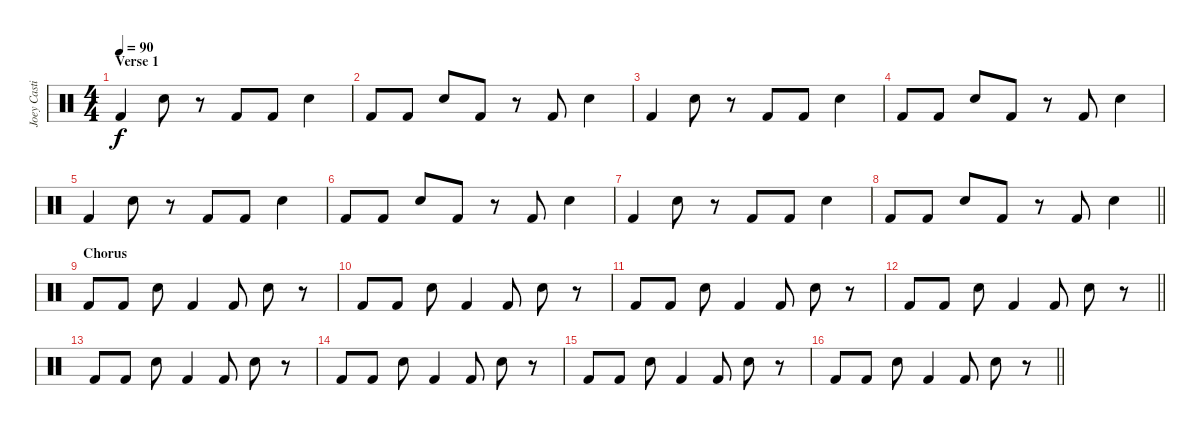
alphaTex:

\track ("Joey Castillo" "Joey Casti") {instrument percussion}
\staff {score}
\articulation defaults
\ts (4 4)
\section ("" "Verse 1")
\tempo 90
\clef neutral
\ks c "Kick (hit) 2".4{dy f} "Electric Snare (hit)".8
r.8 "Kick (hit) 2".8 "Kick (hit) 2".8 "Electric Snare (hit)".4 |
"Kick (hit) 2".8 "Kick (hit) 2".8 "Electric Snare (hit)".8 "Kick (hit) 2".8 r.8 "Kick (hit) 2".8 "Electric Snare (hit)".4 |
"Kick (hit) 2".4 "Electric Snare (hit)".8 r.8 "Kick (hit) 2".8 "Kick (hit) 2".8 "Electric Snare (hit)".4 |
"Kick (hit) 2".8 "Kick (hit) 2".8 "Electric Snare (hit)".8 "Kick (hit) 2".8 r.8 "Kick (hit) 2".8 "Electric Snare (hit)".4 |
"Kick (hit) 2".4 "Electric Snare (hit)".8 r.8 "Kick (hit) 2".8 "Kick (hit) 2".8 "Electric Snare (hit)".4 |
"Kick (hit) 2".8 "Kick (hit) 2".8 "Electric Snare (hit)".8 "Kick (hit) 2".8 r.8 "Kick (hit) 2".8 "Electric Snare (hit)".4 |
"Kick (hit) 2".4 "Electric Snare (hit)".8 r.8 "Kick (hit) 2".8 "Kick (hit) 2".8 "Electric Snare (hit)".4 |
\barLineRight lightlight "Kick (hit) 2".8 "Kick (hit) 2".8 "Electric Snare (hit)".8 "Kick (hit) 2".8
r.8 "Kick (hit) 2".8 "Electric Snare (hit)".4 |
\section ("" "Chorus")
"Kick (hit) 2".8 "Kick (hit) 2".8 "Electric Snare (hit)".8 "Kick (hit) 2".4 "Kick (hit) 2".8 "Electric Snare (hit)".8 r.8 |
"Kick (hit) 2".8 "Kick (hit) 2".8 "Electric Snare (hit)".8 "Kick (hit) 2".4 "Kick (hit) 2".8 "Electric Snare (hit)".8 r.8 |
"Kick (hit) 2".8 "Kick (hit) 2".8 "Electric Snare (hit)".8 "Kick (hit) 2".4 "Kick (hit) 2".8 "Electric Snare (hit)".8 r.8 |
\barLineRight lightlight "Kick (hit) 2".8 "Kick (hit) 2".8 "Electric Snare (hit)".8 "Kick (hit) 2".4 "Kick (hit) 2".8 "Electric Snare (hit)".8
r.8 |
"Kick (hit) 2".8 "Kick (hit) 2".8 "Electric Snare (hit)".8 "Kick (hit) 2".4 "Kick (hit) 2".8 "Electric Snare (hit)".8 r.8 |
"Kick (hit) 2".8 "Kick (hit) 2".8 "Electric Snare (hit)".8 "Kick (hit) 2".4 "Kick (hit) 2".8 "Electric Snare (hit)".8 r.8 |
"Kick (hit) 2".8 "Kick (hit) 2".8 "Electric Snare (hit)".8 "Kick (hit) 2".4 "Kick (hit) 2".8 "Electric Snare (hit)".8 r.8 |
\barLineRight lightlight "Kick (hit) 2".8 "Kick (hit) 2".8 "Electric Snare (hit)".8 "Kick (hit) 2".4 "Kick (hit) 2".8 "Electric Snare (hit)".8
r.8
